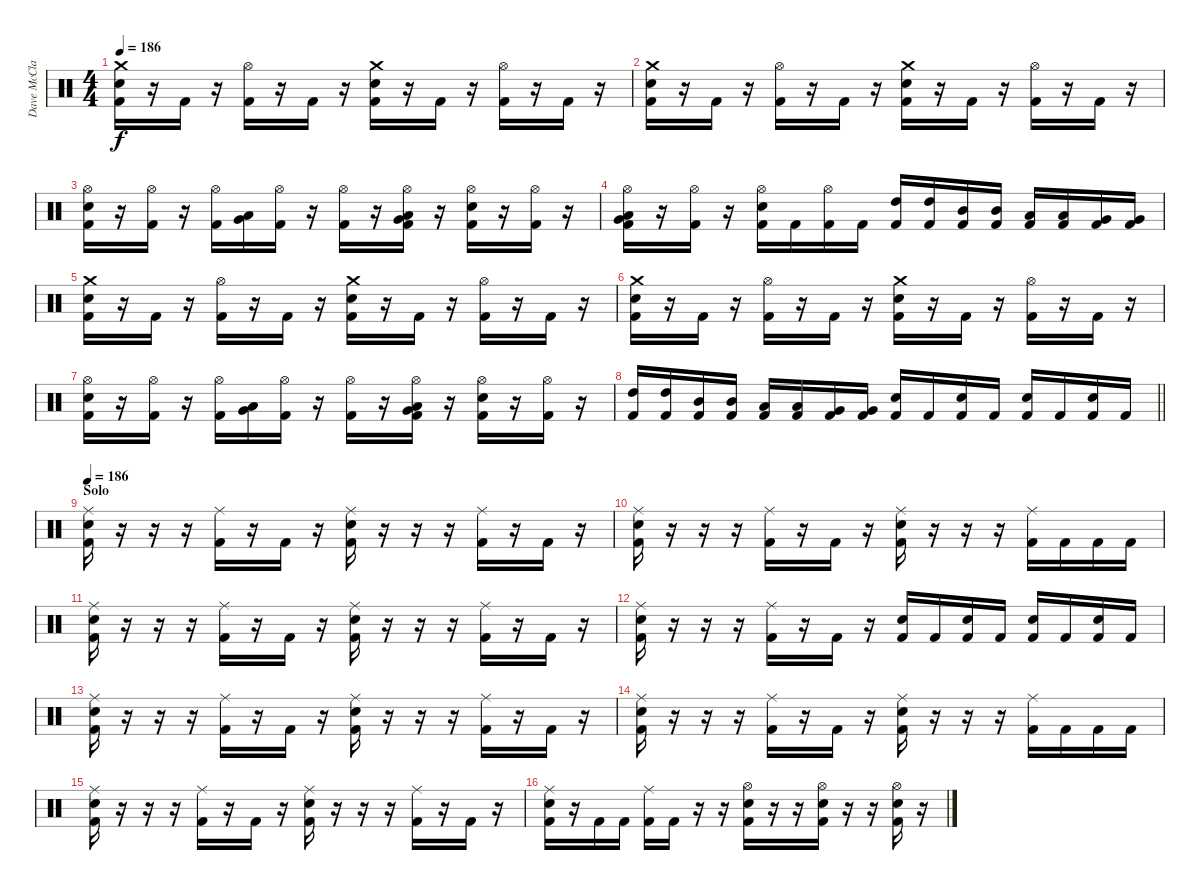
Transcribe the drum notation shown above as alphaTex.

\track ("Dave McClain" "Dave McCla") {instrument percussion}
\staff {score}
\articulation defaults
\ts (4 4)
\tempo 186
\clef neutral
\ks c
("Crash medium (hit)" "Snare (hit) 2" "Kick (hit) 2").16{dy f} r.16 "Kick (hit) 2".16 r.16 ("Hi-Hat (open)" "Kick (hit) 2").16 r.16 "Kick (hit) 2".16 r.16 ("Crash medium (hit)" "Snare (hit) 2" "Kick (hit) 2").16 r.16 "Kick (hit) 2".16 r.16 ("Hi-Hat (open)" "Kick (hit) 2").16 r.16 "Kick (hit) 2".16 r.16 |
("Crash medium (hit)" "Snare (hit) 2" "Kick (hit) 2").16 r.16 "Kick (hit) 2".16 r.16 ("Hi-Hat (open)" "Kick (hit) 2").16 r.16 "Kick (hit) 2".16 r.16 ("Crash medium (hit)" "Snare (hit) 2" "Kick (hit) 2").16 r.16 "Kick (hit) 2".16 r.16 ("Hi-Hat (open)" "Kick (hit) 2").16 r.16 "Kick (hit) 2".16 r.16 |
("Hi-Hat (open)" "Snare (hit) 2" "Kick (hit) 2").16 r.16 ("Hi-Hat (open)" "Kick (hit) 2").16 r.16 ("Hi-Hat (open)" "Kick (hit) 2").16 ("Low Floor Tom (hit)" "Very Low Tom (hit)").16 ("Hi-Hat (open)" "Kick (hit) 2").16 r.16 ("Hi-Hat (open)" "Kick (hit) 2").16 r.16 ("Hi-Hat (open)" "Low Floor Tom (hit)" "Very Low Tom (hit)" "Kick (hit) 2").16 r.16 ("Hi-Hat (open)" "Snare (hit) 2" "Kick (hit) 2").16 r.16 ("Hi-Hat (open)" "Kick (hit) 2").16 r.16 |
("Hi-Hat (open)" "Low Floor Tom (hit)" "Very Low Tom (hit)" "Kick (hit) 2").16 r.16 ("Hi-Hat (open)" "Kick (hit) 2").16 r.16 ("Hi-Hat (open)" "Snare (hit) 2" "Kick (hit) 2").16 "Kick (hit) 2".16 ("Hi-Hat (open)" "Kick (hit) 2").16 "Kick (hit) 2".16 ("High Tom (hit)" "Kick (hit) 2").16 ("High Tom (hit)" "Kick (hit) 2").16 ("Mid Tom (hit)" "Kick (hit) 2").16 ("Mid Tom (hit)" "Kick (hit) 2").16 ("Low Tom (hit)" "Kick (hit) 2").16 ("Low Tom (hit)" "Kick (hit) 2").16 ("Very Low Tom (hit)" "Kick (hit) 2").16 ("Very Low Tom (hit)" "Kick (hit) 2").16 |
("Crash medium (hit)" "Snare (hit) 2" "Kick (hit) 2").16 r.16 "Kick (hit) 2".16 r.16 ("Hi-Hat (open)" "Kick (hit) 2").16 r.16 "Kick (hit) 2".16 r.16 ("Crash medium (hit)" "Snare (hit) 2" "Kick (hit) 2").16 r.16 "Kick (hit) 2".16 r.16 ("Hi-Hat (open)" "Kick (hit) 2").16 r.16 "Kick (hit) 2".16 r.16 |
("Crash medium (hit)" "Snare (hit) 2" "Kick (hit) 2").16 r.16 "Kick (hit) 2".16 r.16 ("Hi-Hat (open)" "Kick (hit) 2").16 r.16 "Kick (hit) 2".16 r.16 ("Crash medium (hit)" "Snare (hit) 2" "Kick (hit) 2").16 r.16 "Kick (hit) 2".16 r.16 ("Hi-Hat (open)" "Kick (hit) 2").16 r.16 "Kick (hit) 2".16 r.16 |
("Hi-Hat (open)" "Snare (hit) 2" "Kick (hit) 2").16 r.16 ("Hi-Hat (open)" "Kick (hit) 2").16 r.16 ("Hi-Hat (open)" "Kick (hit) 2").16 ("Low Floor Tom (hit)" "Very Low Tom (hit)").16 ("Hi-Hat (open)" "Kick (hit) 2").16 r.16 ("Hi-Hat (open)" "Kick (hit) 2").16 r.16 ("Hi-Hat (open)" "Low Floor Tom (hit)" "Very Low Tom (hit)" "Kick (hit) 2").16 r.16 ("Hi-Hat (open)" "Snare (hit) 2" "Kick (hit) 2").16 r.16 ("Hi-Hat (open)" "Kick (hit) 2").16 r.16 |
\barLineRight lightlight
("High Tom (hit)" "Kick (hit) 2").16 ("High Tom (hit)" "Kick (hit) 2").16 ("Mid Tom (hit)" "Kick (hit) 2").16 ("Mid Tom (hit)" "Kick (hit) 2").16 ("Low Tom (hit)" "Kick (hit) 2").16 ("Low Tom (hit)" "Kick (hit) 2").16 ("Very Low Tom (hit)" "Kick (hit) 2").16 ("Very Low Tom (hit)" "Kick (hit) 2").16 ("Snare (hit) 2" "Kick (hit) 2").16 "Kick (hit) 2".16 ("Snare (hit) 2" "Kick (hit) 2").16 "Kick (hit) 2".16 ("Snare (hit) 2" "Kick (hit) 2").16 "Kick (hit) 2".16 ("Snare (hit) 2" "Kick (hit) 2").16 "Kick (hit) 2".16 |
\section ("" "Solo")
\tempo 186
("Ride (middle)" "Snare (hit) 2" "Kick (hit) 2").16 r.16 r.16 r.16 ("Ride (middle)" "Kick (hit) 2").16 r.16 "Kick (hit) 2".16 r.16 ("Ride (middle)" "Snare (hit) 2" "Kick (hit) 2").16 r.16 r.16 r.16 ("Ride (middle)" "Kick (hit) 2").16 r.16 "Kick (hit) 2".16 r.16 |
("Ride (middle)" "Snare (hit) 2" "Kick (hit) 2").16 r.16 r.16 r.16 ("Ride (middle)" "Kick (hit) 2").16 r.16 "Kick (hit) 2".16 r.16 ("Ride (middle)" "Snare (hit) 2" "Kick (hit) 2").16 r.16 r.16 r.16 ("Ride (middle)" "Kick (hit) 2").16 "Kick (hit) 2".16 "Kick (hit) 2".16 "Kick (hit) 2".16 |
("Ride (middle)" "Snare (hit) 2" "Kick (hit) 2").16 r.16 r.16 r.16 ("Ride (middle)" "Kick (hit) 2").16 r.16 "Kick (hit) 2".16 r.16 ("Ride (middle)" "Snare (hit) 2" "Kick (hit) 2").16 r.16 r.16 r.16 ("Ride (middle)" "Kick (hit) 2").16 r.16 "Kick (hit) 2".16 r.16 |
("Ride (middle)" "Snare (hit) 2" "Kick (hit) 2").16 r.16 r.16 r.16 ("Ride (middle)" "Kick (hit) 2").16 r.16 "Kick (hit) 2".16 r.16 ("Snare (hit) 2" "Kick (hit) 2").16 "Kick (hit) 2".16 ("Snare (hit) 2" "Kick (hit) 2").16 "Kick (hit) 2".16 ("Snare (hit) 2" "Kick (hit) 2").16 "Kick (hit) 2".16 ("Snare (hit) 2" "Kick (hit) 2").16 "Kick (hit) 2".16 |
("Ride (middle)" "Snare (hit) 2" "Kick (hit) 2").16 r.16 r.16 r.16 ("Ride (middle)" "Kick (hit) 2").16 r.16 "Kick (hit) 2".16 r.16 ("Ride (middle)" "Snare (hit) 2" "Kick (hit) 2").16 r.16 r.16 r.16 ("Ride (middle)" "Kick (hit) 2").16 r.16 "Kick (hit) 2".16 r.16 |
("Ride (middle)" "Snare (hit) 2" "Kick (hit) 2").16 r.16 r.16 r.16 ("Ride (middle)" "Kick (hit) 2").16 r.16 "Kick (hit) 2".16 r.16 ("Ride (middle)" "Snare (hit) 2" "Kick (hit) 2").16 r.16 r.16 r.16 ("Ride (middle)" "Kick (hit) 2").16 "Kick (hit) 2".16 "Kick (hit) 2".16 "Kick (hit) 2".16 |
("Ride (middle)" "Snare (hit) 2" "Kick (hit) 2").16 r.16 r.16 r.16 ("Ride (middle)" "Kick (hit) 2").16 r.16 "Kick (hit) 2".16 r.16 ("Ride (middle)" "Snare (hit) 2" "Kick (hit) 2").16 r.16 r.16 r.16 ("Ride (middle)" "Kick (hit) 2").16 r.16 "Kick (hit) 2".16 r.16 |
("Ride (middle)" "Snare (hit) 2" "Kick (hit) 2").16 r.16 "Kick (hit) 2".16 "Kick (hit) 2".16 ("Ride (middle)" "Kick (hit) 2").16 "Kick (hit) 2".16 r.16 r.16 ("Hi-Hat (open)" "Snare (hit) 2" "Kick (hit) 2").16 r.16 r.16 ("Hi-Hat (open)" "Snare (hit) 2" "Kick (hit) 2").16 r.16 r.16 ("Hi-Hat (open)" "Snare (hit) 2" "Kick (hit) 2").16 r.16
